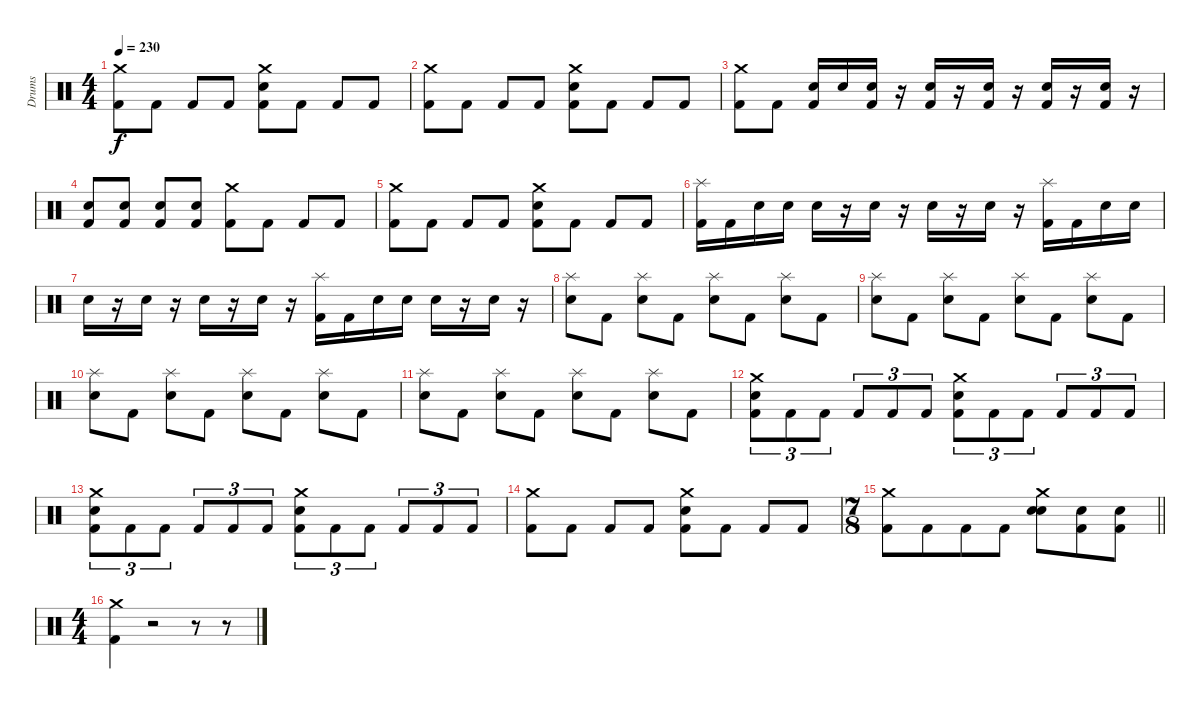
\track ("Drums" "Drums") {instrument percussion}
\staff {score}
\articulation defaults
\ts (4 4)
\tempo 230
\clef neutral
\ks c
("Crash medium (hit)" "Kick (hit) 2").8{dy f} "Kick (hit) 2".8 "Kick (hit) 2".8 "Kick (hit) 2".8 ("Crash medium (hit)" "Snare (hit) 2" "Kick (hit) 2").8 "Kick (hit) 2".8 "Kick (hit) 2".8 "Kick (hit) 2".8 |
("Crash medium (hit)" "Kick (hit) 2").8 "Kick (hit) 2".8 "Kick (hit) 2".8 "Kick (hit) 2".8 ("Crash medium (hit)" "Snare (hit) 2" "Kick (hit) 2").8 "Kick (hit) 2".8 "Kick (hit) 2".8 "Kick (hit) 2".8 |
("Crash medium (hit)" "Kick (hit) 2").8 "Kick (hit) 2".8 ("Snare (hit) 2" "Kick (hit) 2").16 "Snare (hit) 2".16 ("Snare (hit) 2" "Kick (hit) 2").16 r.16 ("Snare (hit) 2" "Kick (hit) 2").16 r.16 ("Snare (hit) 2" "Kick (hit) 2").16 r.16 ("Snare (hit) 2" "Kick (hit) 2").16 r.16 ("Snare (hit) 2" "Kick (hit) 2").16 r.16 |
("Snare (hit) 2" "Kick (hit) 2").8 ("Snare (hit) 2" "Kick (hit) 2").8 ("Snare (hit) 2" "Kick (hit) 2").8 ("Snare (hit) 2" "Kick (hit) 2").8 ("Crash medium (hit)" "Kick (hit) 2").8 "Kick (hit) 2".8 "Kick (hit) 2".8 "Kick (hit) 2".8 |
("Crash medium (hit)" "Kick (hit) 2").8 "Kick (hit) 2".8 "Kick (hit) 2".8 "Kick (hit) 2".8 ("Crash medium (hit)" "Snare (hit) 2" "Kick (hit) 2").8 "Kick (hit) 2".8 "Kick (hit) 2".8 "Kick (hit) 2".8 |
("Splash (hit)" "Kick (hit) 2").16 "Kick (hit) 2".16 "Snare (hit) 2".16 "Snare (hit) 2".16 "Snare (hit) 2".16 r.16 "Snare (hit) 2".16 r.16 "Snare (hit) 2".16 r.16 "Snare (hit) 2".16 r.16 ("Splash (hit)" "Kick (hit) 2").16 "Kick (hit) 2".16 "Snare (hit) 2".16 "Snare (hit) 2".16 |
"Snare (hit) 2".16 r.16 "Snare (hit) 2".16 r.16 "Snare (hit) 2".16 r.16 "Snare (hit) 2".16 r.16 ("Splash (hit)" "Kick (hit) 2").16 "Kick (hit) 2".16 "Snare (hit) 2".16 "Snare (hit) 2".16 "Snare (hit) 2".16 r.16 "Snare (hit) 2".16 r.16 |
("Splash (hit)" "Snare (hit) 2").8 "Kick (hit) 2".8 ("Splash (hit)" "Snare (hit) 2").8 "Kick (hit) 2".8 ("Splash (hit)" "Snare (hit) 2").8 "Kick (hit) 2".8 ("Splash (hit)" "Snare (hit) 2").8 "Kick (hit) 2".8 |
("Splash (hit)" "Snare (hit) 2").8 "Kick (hit) 2".8 ("Splash (hit)" "Snare (hit) 2").8 "Kick (hit) 2".8 ("Splash (hit)" "Snare (hit) 2").8 "Kick (hit) 2".8 ("Splash (hit)" "Snare (hit) 2").8 "Kick (hit) 2".8 |
("Splash (hit)" "Snare (hit) 2").8 "Kick (hit) 2".8 ("Splash (hit)" "Snare (hit) 2").8 "Kick (hit) 2".8 ("Splash (hit)" "Snare (hit) 2").8 "Kick (hit) 2".8 ("Splash (hit)" "Snare (hit) 2").8 "Kick (hit) 2".8 |
("Splash (hit)" "Snare (hit) 2").8 "Kick (hit) 2".8 ("Splash (hit)" "Snare (hit) 2").8 "Kick (hit) 2".8 ("Splash (hit)" "Snare (hit) 2").8 "Kick (hit) 2".8 ("Splash (hit)" "Snare (hit) 2").8 "Kick (hit) 2".8 |
("Crash medium (hit)" "Snare (hit) 2" "Kick (hit) 2").8{tu (3 2)} "Kick (hit) 2".8{tu (3 2)} "Kick (hit) 2".8{tu (3 2)} "Kick (hit) 2".8{tu (3 2)} "Kick (hit) 2".8{tu (3 2)} "Kick (hit) 2".8{tu (3 2)} ("Crash medium (hit)" "Snare (hit) 2" "Kick (hit) 2").8{tu (3 2)} "Kick (hit) 2".8{tu (3 2)} "Kick (hit) 2".8{tu (3 2)} "Kick (hit) 2".8{tu (3 2)} "Kick (hit) 2".8{tu (3 2)} "Kick (hit) 2".8{tu (3 2)} |
("Crash medium (hit)" "Snare (hit) 2" "Kick (hit) 2").8{tu (3 2)} "Kick (hit) 2".8{tu (3 2)} "Kick (hit) 2".8{tu (3 2)} "Kick (hit) 2".8{tu (3 2)} "Kick (hit) 2".8{tu (3 2)} "Kick (hit) 2".8{tu (3 2)} ("Crash medium (hit)" "Snare (hit) 2" "Kick (hit) 2").8{tu (3 2)} "Kick (hit) 2".8{tu (3 2)} "Kick (hit) 2".8{tu (3 2)} "Kick (hit) 2".8{tu (3 2)} "Kick (hit) 2".8{tu (3 2)} "Kick (hit) 2".8{tu (3 2)} |
("Crash medium (hit)" "Kick (hit) 2").8 "Kick (hit) 2".8 "Kick (hit) 2".8 "Kick (hit) 2".8 ("Crash medium (hit)" "Snare (hit) 2" "Kick (hit) 2").8 "Kick (hit) 2".8 "Kick (hit) 2".8 "Kick (hit) 2".8 |
\ts (7 8)
\barLineRight lightlight
("Crash medium (hit)" "Kick (hit) 2").8 "Kick (hit) 2".8 "Kick (hit) 2".8 "Kick (hit) 2".8 ("Crash medium (hit)" "Snare (hit) 2" "Snare (hit) 2").8 ("Snare (hit) 2" "Kick (hit) 2").8 ("Snare (hit) 2" "Kick (hit) 2").8 |
\ts (4 4)
("Crash medium (hit)" "Kick (hit) 2").4 r.2{volume 0} r.8 r.8{volume 16}
